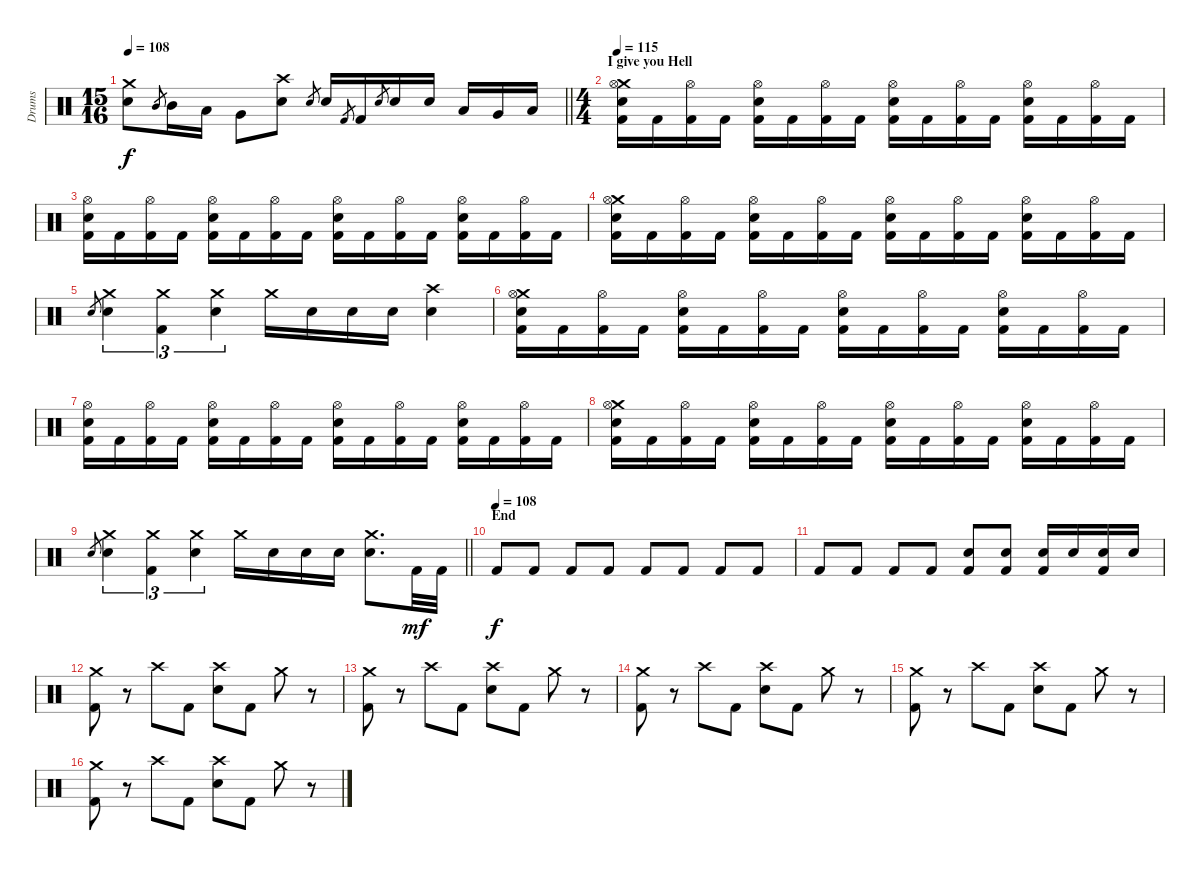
\track ("Drums" "Drums") {instrument percussion}
\staff {score}
\articulation defaults
\ts (15 16)
\tempo 108
\clef neutral
\barLineRight lightlight
\ks c
("Crash medium (hit)" "Electric Snare (hit)").8{dy f} "Mid Tom (hit)".8{gr} "Mid Tom (hit)".16 "Low Tom (hit)".16 "Very Low Tom (hit)".8 ("Crash high (hit)" "Electric Snare (hit)").8 "Electric Snare (hit)".8{gr} "Electric Snare (hit)".16 "Kick (hit) 2".8{gr} "Kick (hit) 2".16 "Electric Snare (hit)".8{gr} "Electric Snare (hit)".16 "Electric Snare (hit)".16 "Low Tom (hit)".16 "Very Low Tom (hit)".16 "Low Floor Tom (hit)".16 |
\ts (4 4)
\section ("" "I give you Hell")
\tempo 115
("Crash medium (hit)" "Hi-Hat (open)" "Electric Snare (hit)" "Kick (hit) 2").16 "Kick (hit) 2".16 ("Hi-Hat (open)" "Kick (hit) 2").16 "Kick (hit) 2".16 ("Hi-Hat (open)" "Electric Snare (hit)" "Kick (hit) 2").16 "Kick (hit) 2".16 ("Hi-Hat (open)" "Kick (hit) 2").16 "Kick (hit) 2".16 ("Hi-Hat (open)" "Electric Snare (hit)" "Kick (hit) 2").16 "Kick (hit) 2".16 ("Hi-Hat (open)" "Kick (hit) 2").16 "Kick (hit) 2".16 ("Hi-Hat (open)" "Electric Snare (hit)" "Kick (hit) 2").16 "Kick (hit) 2".16 ("Hi-Hat (open)" "Kick (hit) 2").16 "Kick (hit) 2".16 |
("Hi-Hat (open)" "Electric Snare (hit)" "Kick (hit) 2").16 "Kick (hit) 2".16 ("Hi-Hat (open)" "Kick (hit) 2").16 "Kick (hit) 2".16 ("Hi-Hat (open)" "Electric Snare (hit)" "Kick (hit) 2").16 "Kick (hit) 2".16 ("Hi-Hat (open)" "Kick (hit) 2").16 "Kick (hit) 2".16 ("Hi-Hat (open)" "Electric Snare (hit)" "Kick (hit) 2").16 "Kick (hit) 2".16 ("Hi-Hat (open)" "Kick (hit) 2").16 "Kick (hit) 2".16 ("Hi-Hat (open)" "Electric Snare (hit)" "Kick (hit) 2").16 "Kick (hit) 2".16 ("Hi-Hat (open)" "Kick (hit) 2").16 "Kick (hit) 2".16 |
("Crash medium (hit)" "Hi-Hat (open)" "Electric Snare (hit)" "Kick (hit) 2").16 "Kick (hit) 2".16 ("Hi-Hat (open)" "Kick (hit) 2").16 "Kick (hit) 2".16 ("Hi-Hat (open)" "Electric Snare (hit)" "Kick (hit) 2").16 "Kick (hit) 2".16 ("Hi-Hat (open)" "Kick (hit) 2").16 "Kick (hit) 2".16 ("Hi-Hat (open)" "Electric Snare (hit)" "Kick (hit) 2").16 "Kick (hit) 2".16 ("Hi-Hat (open)" "Kick (hit) 2").16 "Kick (hit) 2".16 ("Hi-Hat (open)" "Electric Snare (hit)" "Kick (hit) 2").16 "Kick (hit) 2".16 ("Hi-Hat (open)" "Kick (hit) 2").16 "Kick (hit) 2".16 |
"Electric Snare (hit)".8{gr} ("Crash medium (hit)" "Electric Snare (hit)").4{tu (3 2)} ("Crash medium (hit)" "Kick (hit) 2").4{tu (3 2)} ("Crash medium (hit)" "Electric Snare (hit)").4{tu (3 2)} "Crash medium (hit)".16 "Electric Snare (hit)".16 "Electric Snare (hit)".16 "Electric Snare (hit)".16 ("Crash high (hit)" "Electric Snare (hit)").4 |
("Crash medium (hit)" "Hi-Hat (open)" "Electric Snare (hit)" "Kick (hit) 2").16 "Kick (hit) 2".16 ("Hi-Hat (open)" "Kick (hit) 2").16 "Kick (hit) 2".16 ("Hi-Hat (open)" "Electric Snare (hit)" "Kick (hit) 2").16 "Kick (hit) 2".16 ("Hi-Hat (open)" "Kick (hit) 2").16 "Kick (hit) 2".16 ("Hi-Hat (open)" "Electric Snare (hit)" "Kick (hit) 2").16 "Kick (hit) 2".16 ("Hi-Hat (open)" "Kick (hit) 2").16 "Kick (hit) 2".16 ("Hi-Hat (open)" "Electric Snare (hit)" "Kick (hit) 2").16 "Kick (hit) 2".16 ("Hi-Hat (open)" "Kick (hit) 2").16 "Kick (hit) 2".16 |
("Hi-Hat (open)" "Electric Snare (hit)" "Kick (hit) 2").16 "Kick (hit) 2".16 ("Hi-Hat (open)" "Kick (hit) 2").16 "Kick (hit) 2".16 ("Hi-Hat (open)" "Electric Snare (hit)" "Kick (hit) 2").16 "Kick (hit) 2".16 ("Hi-Hat (open)" "Kick (hit) 2").16 "Kick (hit) 2".16 ("Hi-Hat (open)" "Electric Snare (hit)" "Kick (hit) 2").16 "Kick (hit) 2".16 ("Hi-Hat (open)" "Kick (hit) 2").16 "Kick (hit) 2".16 ("Hi-Hat (open)" "Electric Snare (hit)" "Kick (hit) 2").16 "Kick (hit) 2".16 ("Hi-Hat (open)" "Kick (hit) 2").16 "Kick (hit) 2".16 |
("Crash medium (hit)" "Hi-Hat (open)" "Electric Snare (hit)" "Kick (hit) 2").16 "Kick (hit) 2".16 ("Hi-Hat (open)" "Kick (hit) 2").16 "Kick (hit) 2".16 ("Hi-Hat (open)" "Electric Snare (hit)" "Kick (hit) 2").16 "Kick (hit) 2".16 ("Hi-Hat (open)" "Kick (hit) 2").16 "Kick (hit) 2".16 ("Hi-Hat (open)" "Electric Snare (hit)" "Kick (hit) 2").16 "Kick (hit) 2".16 ("Hi-Hat (open)" "Kick (hit) 2").16 "Kick (hit) 2".16 ("Hi-Hat (open)" "Electric Snare (hit)" "Kick (hit) 2").16 "Kick (hit) 2".16 ("Hi-Hat (open)" "Kick (hit) 2").16 "Kick (hit) 2".16 |
\barLineRight lightlight "Electric Snare (hit)".8{gr}
("Crash medium (hit)" "Electric Snare (hit)").4{tu (3 2)} ("Crash medium (hit)" "Kick (hit) 2").4{tu (3 2)} ("Crash medium (hit)" "Electric Snare (hit)").4{tu (3 2)} "Crash medium (hit)".16 "Electric Snare (hit)".16 "Electric Snare (hit)".16 "Electric Snare (hit)".16 ("Crash medium (hit)" "Electric Snare (hit)").8{d} "Kick (hit) 2".32{dy mf} "Kick (hit) 2".32 |
\section ("" "End")
\tempo (108)
"Kick (hit) 2".8{dy f} "Kick (hit) 2".8 "Kick (hit) 2".8 "Kick (hit) 2".8 "Kick (hit) 2".8 "Kick (hit) 2".8 "Kick (hit) 2".8 "Kick (hit) 2".8 |
"Kick (hit) 2".8 "Kick (hit) 2".8 "Kick (hit) 2".8 "Kick (hit) 2".8 ("Electric Snare (hit)" "Kick (hit) 2").8 ("Electric Snare (hit)" "Kick (hit) 2").8 ("Electric Snare (hit)" "Kick (hit) 2").16 "Electric Snare (hit)".16 ("Electric Snare (hit)" "Kick (hit) 2").16 "Electric Snare (hit)".16 |
("Crash medium (hit)" "Kick (hit) 2").8 r.8 "Crash high (hit)".8 "Kick (hit) 2".8 ("Crash high (hit)" "Electric Snare (hit)").8 "Kick (hit) 2".8 "Crash medium (hit)".8 r.8 |
("Crash medium (hit)" "Kick (hit) 2").8 r.8 "Crash high (hit)".8 "Kick (hit) 2".8 ("Crash high (hit)" "Electric Snare (hit)").8 "Kick (hit) 2".8 "Crash medium (hit)".8 r.8 |
("Crash medium (hit)" "Kick (hit) 2").8 r.8 "Crash high (hit)".8 "Kick (hit) 2".8 ("Crash high (hit)" "Electric Snare (hit)").8 "Kick (hit) 2".8 "Crash medium (hit)".8 r.8 |
("Crash medium (hit)" "Kick (hit) 2").8 r.8 "Crash high (hit)".8 "Kick (hit) 2".8 ("Crash high (hit)" "Electric Snare (hit)").8 "Kick (hit) 2".8 "Crash medium (hit)".8 r.8 |
("Crash medium (hit)" "Kick (hit) 2").8 r.8 "Crash high (hit)".8 "Kick (hit) 2".8 ("Crash high (hit)" "Electric Snare (hit)").8 "Kick (hit) 2".8 "Crash medium (hit)".8 r.8
